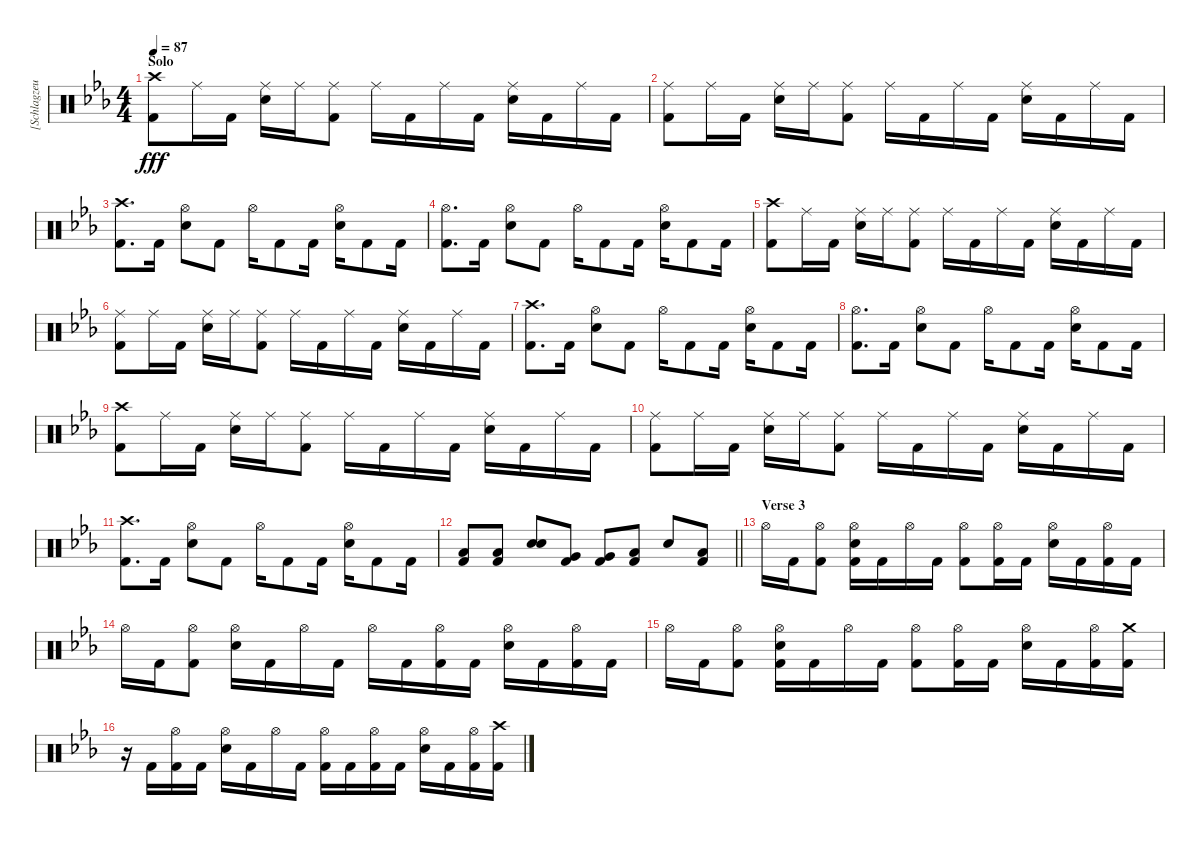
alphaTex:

\track ("[Schlagzeug]" "[Schlagzeu") {instrument percussion}
\staff {score}
\articulation defaults
\ts (4 4)
\section ("" "Solo")
\tempo 87
\clef neutral
\ks cminor
("Crash high (hit)" "Kick (hit) 2").8{dy fff} "Ride (middle)".16 "Kick (hit) 2".16 ("Electric Snare (hit)" "Ride (middle)").16 "Ride (middle)".16 ("Ride (middle)" "Kick (hit) 2").8 "Ride (middle)".16 "Kick (hit) 2".16 "Ride (middle)".16 "Kick (hit) 2".16 ("Ride (middle)" "Electric Snare (hit)").16 "Kick (hit) 2".16 "Ride (middle)".16 "Kick (hit) 2".16 |
("Ride (middle)" "Kick (hit) 2").8 "Ride (middle)".16 "Kick (hit) 2".16 ("Electric Snare (hit)" "Ride (middle)").16 "Ride (middle)".16 ("Ride (middle)" "Kick (hit) 2").8 "Ride (middle)".16 "Kick (hit) 2".16 "Ride (middle)".16 "Kick (hit) 2".16 ("Ride (middle)" "Electric Snare (hit)").16 "Kick (hit) 2".16 "Ride (middle)".16 "Kick (hit) 2".16 |
("Kick (hit) 2" "Crash high (hit)").8{d} "Kick (hit) 2".16 ("Hi-Hat (open)" "Electric Snare (hit)").8 "Kick (hit) 2".8 "Hi-Hat (open)".16 "Kick (hit) 2".8 "Kick (hit) 2".16 ("Electric Snare (hit)" "Hi-Hat (open)").16 "Kick (hit) 2".8 "Kick (hit) 2".16 |
("Hi-Hat (open)" "Kick (hit) 2").8{d} "Kick (hit) 2".16 ("Hi-Hat (open)" "Electric Snare (hit)").8 "Kick (hit) 2".8 "Hi-Hat (open)".16 "Kick (hit) 2".8 "Kick (hit) 2".16 ("Electric Snare (hit)" "Hi-Hat (open)").16 "Kick (hit) 2".8 "Kick (hit) 2".16 |
("Crash high (hit)" "Kick (hit) 2").8 "Ride (middle)".16 "Kick (hit) 2".16 ("Electric Snare (hit)" "Ride (middle)").16 "Ride (middle)".16 ("Ride (middle)" "Kick (hit) 2").8 "Ride (middle)".16 "Kick (hit) 2".16 "Ride (middle)".16 "Kick (hit) 2".16 ("Ride (middle)" "Electric Snare (hit)").16 "Kick (hit) 2".16 "Ride (middle)".16 "Kick (hit) 2".16 |
("Ride (middle)" "Kick (hit) 2").8 "Ride (middle)".16 "Kick (hit) 2".16 ("Electric Snare (hit)" "Ride (middle)").16 "Ride (middle)".16 ("Ride (middle)" "Kick (hit) 2").8 "Ride (middle)".16 "Kick (hit) 2".16 "Ride (middle)".16 "Kick (hit) 2".16 ("Ride (middle)" "Electric Snare (hit)").16 "Kick (hit) 2".16 "Ride (middle)".16 "Kick (hit) 2".16 |
("Kick (hit) 2" "Crash high (hit)").8{d} "Kick (hit) 2".16 ("Hi-Hat (open)" "Electric Snare (hit)").8 "Kick (hit) 2".8 "Hi-Hat (open)".16 "Kick (hit) 2".8 "Kick (hit) 2".16 ("Electric Snare (hit)" "Hi-Hat (open)").16 "Kick (hit) 2".8 "Kick (hit) 2".16 |
("Hi-Hat (open)" "Kick (hit) 2").8{d} "Kick (hit) 2".16 ("Hi-Hat (open)" "Electric Snare (hit)").8 "Kick (hit) 2".8 "Hi-Hat (open)".16 "Kick (hit) 2".8 "Kick (hit) 2".16 ("Electric Snare (hit)" "Hi-Hat (open)").16 "Kick (hit) 2".8 "Kick (hit) 2".16 |
("Crash high (hit)" "Kick (hit) 2").8 "Ride (middle)".16 "Kick (hit) 2".16 ("Electric Snare (hit)" "Ride (middle)").16 "Ride (middle)".16 ("Ride (middle)" "Kick (hit) 2").8 "Ride (middle)".16 "Kick (hit) 2".16 "Ride (middle)".16 "Kick (hit) 2".16 ("Ride (middle)" "Electric Snare (hit)").16 "Kick (hit) 2".16 "Ride (middle)".16 "Kick (hit) 2".16 |
("Ride (middle)" "Kick (hit) 2").8 "Ride (middle)".16 "Kick (hit) 2".16 ("Electric Snare (hit)" "Ride (middle)").16 "Ride (middle)".16 ("Ride (middle)" "Kick (hit) 2").8 "Ride (middle)".16 "Kick (hit) 2".16 "Ride (middle)".16 "Kick (hit) 2".16 ("Ride (middle)" "Electric Snare (hit)").16 "Kick (hit) 2".16 "Ride (middle)".16 "Kick (hit) 2".16 |
("Kick (hit) 2" "Crash high (hit)").8{d} "Kick (hit) 2".16 ("Hi-Hat (open)" "Electric Snare (hit)").8 "Kick (hit) 2".8 "Hi-Hat (open)".16 "Kick (hit) 2".8 "Kick (hit) 2".16 ("Electric Snare (hit)" "Hi-Hat (open)").16 "Kick (hit) 2".8 "Kick (hit) 2".16 |
\barLineRight lightlight
("Kick (hit) 2" "Low Tom (hit)").8 ("Kick (hit) 2" "Low Tom (hit)").8 ("Electric Snare (hit)" "Electric Snare (hit)").8 ("Kick (hit) 2" "Very Low Tom (hit)").8 ("Kick (hit) 2" "Very Low Tom (hit)").8 ("Kick (hit) 2" "Low Floor Tom (hit)").8 "Electric Snare (hit)".8 ("Kick (hit) 2" "Low Floor Tom (hit)").8 |
\section ("" "Verse 3")
"Hi-Hat (open)".16 "Kick (hit) 2".16 ("Hi-Hat (open)" "Kick (hit) 2").8 ("Hi-Hat (open)" "Kick (hit) 2" "Electric Snare (hit)").16 "Kick (hit) 2".16 "Hi-Hat (open)".16 "Kick (hit) 2".16 ("Hi-Hat (open)" "Kick (hit) 2").8 ("Kick (hit) 2" "Hi-Hat (open)").16 "Kick (hit) 2".16 ("Hi-Hat (open)" "Electric Snare (hit)").16 "Kick (hit) 2".16 ("Kick (hit) 2" "Hi-Hat (open)").16 "Kick (hit) 2".16 |
"Hi-Hat (open)".16 "Kick (hit) 2".16 ("Kick (hit) 2" "Hi-Hat (open)").8 ("Electric Snare (hit)" "Hi-Hat (open)").16 "Kick (hit) 2".16 "Hi-Hat (open)".16 "Kick (hit) 2".16 "Hi-Hat (open)".16 "Kick (hit) 2".16 ("Kick (hit) 2" "Hi-Hat (open)").16 "Kick (hit) 2".16 ("Electric Snare (hit)" "Hi-Hat (open)").16 "Kick (hit) 2".16 ("Kick (hit) 2" "Hi-Hat (open)").16 "Kick (hit) 2".16 |
"Hi-Hat (open)".16 "Kick (hit) 2".16 ("Kick (hit) 2" "Hi-Hat (open)").8 ("Hi-Hat (open)" "Kick (hit) 2" "Electric Snare (hit)").16 "Kick (hit) 2".16 "Hi-Hat (open)".16 "Kick (hit) 2".16 ("Hi-Hat (open)" "Kick (hit) 2").8 ("Kick (hit) 2" "Hi-Hat (open)").16 "Kick (hit) 2".16 ("Hi-Hat (open)" "Electric Snare (hit)").16 "Kick (hit) 2".16 ("Kick (hit) 2" "Hi-Hat (open)").16 ("Crash medium (hit)" "Kick (hit) 2").16 |
r.16 "Kick (hit) 2".16 ("Kick (hit) 2" "Hi-Hat (open)").16 "Kick (hit) 2".16 ("Electric Snare (hit)" "Hi-Hat (open)").16 "Kick (hit) 2".16 "Hi-Hat (open)".16 "Kick (hit) 2".16 ("Kick (hit) 2" "Hi-Hat (open)").16 "Kick (hit) 2".16 ("Kick (hit) 2" "Hi-Hat (open)").16 "Kick (hit) 2".16 ("Electric Snare (hit)" "Hi-Hat (open)").16 "Kick (hit) 2".16 ("Kick (hit) 2" "Hi-Hat (open)").16 ("Crash high (hit)" "Kick (hit) 2").16
